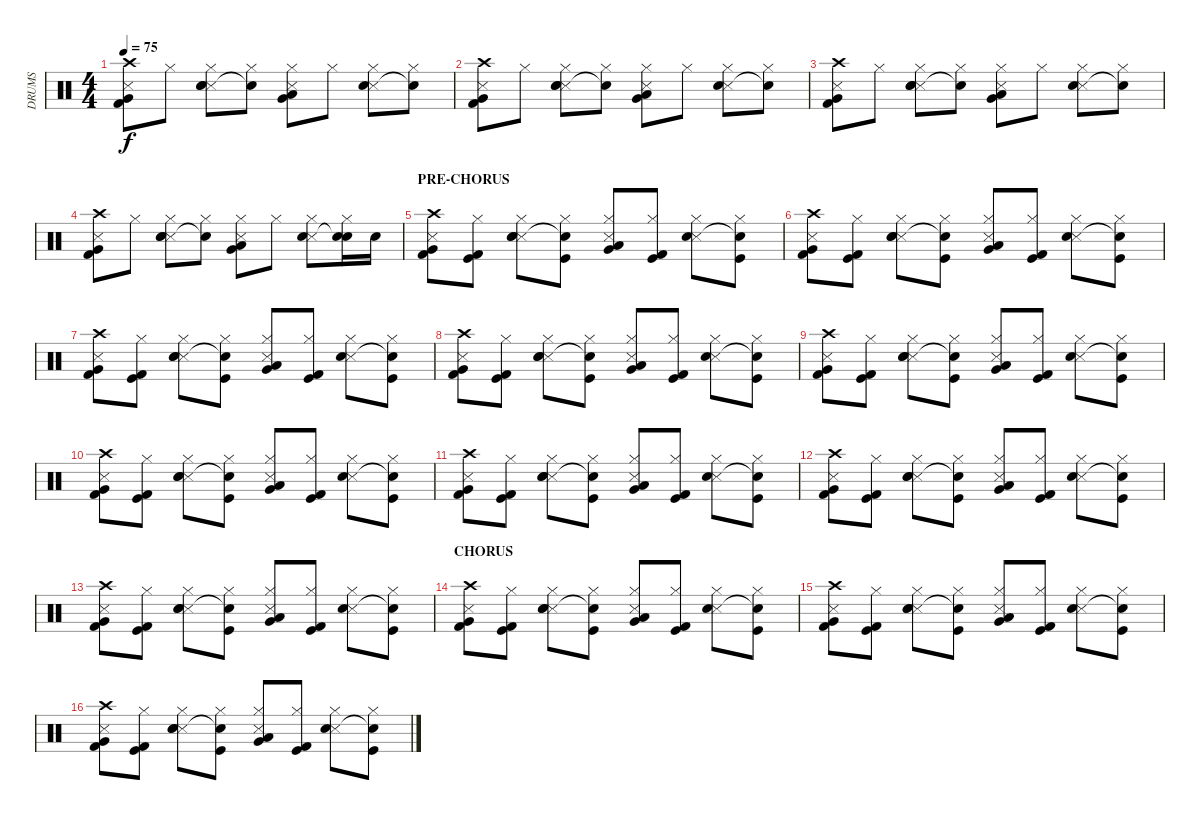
\track ("DRUMS" "DRUMS") {instrument percussion}
\staff {score}
\articulation defaults
\ts (4 4)
\tempo 75
\clef neutral
\ks c
("Crash high (hit)" "Snare (side stick) 3" "Very Low Tom (hit)" "Kick (hit) 2").8{dy f} "Hi-Hat (closed)".8 ("Hi-Hat (closed)" "Snare (side stick) 3" "Electric Snare (hit)" "Snare (hit) 2").8 ("Hi-Hat (closed)" "Snare (hit)"{t}).8 ("Hi-Hat (closed)" "Snare (side stick) 3" "Very Low Tom (hit)" "Low Floor Tom (hit)").8 "Hi-Hat (closed)".8 ("Hi-Hat (closed)" "Snare (side stick) 3" "Electric Snare (hit)").8 ("Hi-Hat (closed)" "Snare (hit)"{t}).8 |
("Crash high (hit)" "Snare (side stick) 3" "Very Low Tom (hit)" "Kick (hit) 2").8 "Hi-Hat (closed)".8 ("Hi-Hat (closed)" "Snare (side stick) 3" "Electric Snare (hit)" "Snare (hit) 2").8 ("Hi-Hat (closed)" "Snare (hit)"{t}).8 ("Hi-Hat (closed)" "Snare (side stick) 3" "Very Low Tom (hit)" "Low Floor Tom (hit)").8 "Hi-Hat (closed)".8 ("Hi-Hat (closed)" "Snare (side stick) 3" "Electric Snare (hit)").8 ("Hi-Hat (closed)" "Snare (hit)"{t}).8 |
("Crash high (hit)" "Snare (side stick) 3" "Very Low Tom (hit)" "Kick (hit) 2").8 "Hi-Hat (closed)".8 ("Hi-Hat (closed)" "Snare (side stick) 3" "Electric Snare (hit)" "Snare (hit) 2").8 ("Hi-Hat (closed)" "Snare (hit)"{t}).8 ("Hi-Hat (closed)" "Snare (side stick) 3" "Very Low Tom (hit)" "Low Floor Tom (hit)").8 "Hi-Hat (closed)".8 ("Hi-Hat (closed)" "Snare (side stick) 3" "Electric Snare (hit)").8 ("Hi-Hat (closed)" "Snare (hit)"{t}).8 |
("Crash high (hit)" "Snare (side stick) 3" "Very Low Tom (hit)" "Kick (hit) 2").8 "Hi-Hat (closed)".8 ("Hi-Hat (closed)" "Snare (side stick) 3" "Electric Snare (hit)" "Snare (hit) 2").8 ("Hi-Hat (closed)" "Snare (hit)"{t}).8 ("Hi-Hat (closed)" "Snare (side stick) 3" "Very Low Tom (hit)" "Low Floor Tom (hit)").8 "Hi-Hat (closed)".8 ("Hi-Hat (closed)" "Snare (side stick) 3" "Electric Snare (hit)").8 ("Hi-Hat (closed)" "Electric Snare (hit)" "Snare (hit)"{t}).16 "Electric Snare (hit)".16 |
\section ("" "PRE-CHORUS")
("Crash high (hit)" "Snare (side stick) 3" "Very Low Tom (hit)" "Kick (hit) 2").8 ("Hi-Hat (closed)" "Kick (hit)" "Kick (hit) 2").8 ("Hi-Hat (closed)" "Snare (side stick) 3" "Electric Snare (hit)" "Snare (hit) 2").8 ("Hi-Hat (closed)" "Kick (hit)" "Snare (hit)"{t}).8 ("Hi-Hat (closed)" "Snare (side stick) 3" "Very Low Tom (hit)" "Low Floor Tom (hit)").8 ("Hi-Hat (closed)" "Kick (hit)" "Kick (hit) 2").8 ("Hi-Hat (closed)" "Snare (side stick) 3" "Electric Snare (hit)").8 ("Hi-Hat (closed)" "Kick (hit)" "Snare (hit)"{t}).8 |
("Crash high (hit)" "Snare (side stick) 3" "Very Low Tom (hit)" "Kick (hit) 2").8 ("Hi-Hat (closed)" "Kick (hit)" "Kick (hit) 2").8 ("Hi-Hat (closed)" "Snare (side stick) 3" "Electric Snare (hit)" "Snare (hit) 2").8 ("Hi-Hat (closed)" "Kick (hit)" "Snare (hit)"{t}).8 ("Hi-Hat (closed)" "Snare (side stick) 3" "Very Low Tom (hit)" "Low Floor Tom (hit)").8 ("Hi-Hat (closed)" "Kick (hit)" "Kick (hit) 2").8 ("Hi-Hat (closed)" "Snare (side stick) 3" "Electric Snare (hit)").8 ("Hi-Hat (closed)" "Kick (hit)" "Snare (hit)"{t}).8 |
("Crash high (hit)" "Snare (side stick) 3" "Very Low Tom (hit)" "Kick (hit) 2").8 ("Hi-Hat (closed)" "Kick (hit)" "Kick (hit) 2").8 ("Hi-Hat (closed)" "Snare (side stick) 3" "Electric Snare (hit)" "Snare (hit) 2").8 ("Hi-Hat (closed)" "Kick (hit)" "Snare (hit)"{t}).8 ("Hi-Hat (closed)" "Snare (side stick) 3" "Very Low Tom (hit)" "Low Floor Tom (hit)").8 ("Hi-Hat (closed)" "Kick (hit)" "Kick (hit) 2").8 ("Hi-Hat (closed)" "Snare (side stick) 3" "Electric Snare (hit)").8 ("Hi-Hat (closed)" "Kick (hit)" "Snare (hit)"{t}).8 |
("Crash high (hit)" "Snare (side stick) 3" "Very Low Tom (hit)" "Kick (hit) 2").8 ("Hi-Hat (closed)" "Kick (hit)" "Kick (hit) 2").8 ("Hi-Hat (closed)" "Snare (side stick) 3" "Electric Snare (hit)" "Snare (hit) 2").8 ("Hi-Hat (closed)" "Kick (hit)" "Snare (hit)"{t}).8 ("Hi-Hat (closed)" "Snare (side stick) 3" "Very Low Tom (hit)" "Low Floor Tom (hit)").8 ("Hi-Hat (closed)" "Kick (hit)" "Kick (hit) 2").8 ("Hi-Hat (closed)" "Snare (side stick) 3" "Electric Snare (hit)").8 ("Hi-Hat (closed)" "Kick (hit)" "Snare (hit)"{t}).8 |
("Crash high (hit)" "Snare (side stick) 3" "Very Low Tom (hit)" "Kick (hit) 2").8 ("Hi-Hat (closed)" "Kick (hit)" "Kick (hit) 2").8 ("Hi-Hat (closed)" "Snare (side stick) 3" "Electric Snare (hit)" "Snare (hit) 2").8 ("Hi-Hat (closed)" "Kick (hit)" "Snare (hit)"{t}).8 ("Hi-Hat (closed)" "Snare (side stick) 3" "Very Low Tom (hit)" "Low Floor Tom (hit)").8 ("Hi-Hat (closed)" "Kick (hit)" "Kick (hit) 2").8 ("Hi-Hat (closed)" "Snare (side stick) 3" "Electric Snare (hit)").8 ("Hi-Hat (closed)" "Kick (hit)" "Snare (hit)"{t}).8 |
("Crash high (hit)" "Snare (side stick) 3" "Very Low Tom (hit)" "Kick (hit) 2").8 ("Hi-Hat (closed)" "Kick (hit)" "Kick (hit) 2").8 ("Hi-Hat (closed)" "Snare (side stick) 3" "Electric Snare (hit)" "Snare (hit) 2").8 ("Hi-Hat (closed)" "Kick (hit)" "Snare (hit)"{t}).8 ("Hi-Hat (closed)" "Snare (side stick) 3" "Very Low Tom (hit)" "Low Floor Tom (hit)").8 ("Hi-Hat (closed)" "Kick (hit)" "Kick (hit) 2").8 ("Hi-Hat (closed)" "Snare (side stick) 3" "Electric Snare (hit)").8 ("Hi-Hat (closed)" "Kick (hit)" "Snare (hit)"{t}).8 |
("Crash high (hit)" "Snare (side stick) 3" "Very Low Tom (hit)" "Kick (hit) 2").8 ("Hi-Hat (closed)" "Kick (hit)" "Kick (hit) 2").8 ("Hi-Hat (closed)" "Snare (side stick) 3" "Electric Snare (hit)" "Snare (hit) 2").8 ("Hi-Hat (closed)" "Kick (hit)" "Snare (hit)"{t}).8 ("Hi-Hat (closed)" "Snare (side stick) 3" "Very Low Tom (hit)" "Low Floor Tom (hit)").8 ("Hi-Hat (closed)" "Kick (hit)" "Kick (hit) 2").8 ("Hi-Hat (closed)" "Snare (side stick) 3" "Electric Snare (hit)").8 ("Hi-Hat (closed)" "Kick (hit)" "Snare (hit)"{t}).8 |
("Crash high (hit)" "Snare (side stick) 3" "Very Low Tom (hit)" "Kick (hit) 2").8 ("Hi-Hat (closed)" "Kick (hit)" "Kick (hit) 2").8 ("Hi-Hat (closed)" "Snare (side stick) 3" "Electric Snare (hit)" "Snare (hit) 2").8 ("Hi-Hat (closed)" "Kick (hit)" "Snare (hit)"{t}).8 ("Hi-Hat (closed)" "Snare (side stick) 3" "Very Low Tom (hit)" "Low Floor Tom (hit)").8 ("Hi-Hat (closed)" "Kick (hit)" "Kick (hit) 2").8 ("Hi-Hat (closed)" "Snare (side stick) 3" "Electric Snare (hit)").8 ("Hi-Hat (closed)" "Kick (hit)" "Snare (hit)"{t}).8 |
("Crash high (hit)" "Snare (side stick) 3" "Very Low Tom (hit)" "Kick (hit) 2").8 ("Hi-Hat (closed)" "Kick (hit)" "Kick (hit) 2").8 ("Hi-Hat (closed)" "Snare (side stick) 3" "Electric Snare (hit)" "Snare (hit) 2").8 ("Hi-Hat (closed)" "Kick (hit)" "Snare (hit)"{t}).8 ("Hi-Hat (closed)" "Snare (side stick) 3" "Very Low Tom (hit)" "Low Floor Tom (hit)").8 ("Hi-Hat (closed)" "Kick (hit)" "Kick (hit) 2").8 ("Hi-Hat (closed)" "Snare (side stick) 3" "Electric Snare (hit)").8 ("Hi-Hat (closed)" "Kick (hit)" "Snare (hit)"{t}).8 |
\section ("" "CHORUS")
("Crash high (hit)" "Snare (side stick) 3" "Very Low Tom (hit)" "Kick (hit) 2").8 ("Hi-Hat (closed)" "Kick (hit)" "Kick (hit) 2").8 ("Hi-Hat (closed)" "Snare (side stick) 3" "Electric Snare (hit)" "Snare (hit) 2").8 ("Hi-Hat (closed)" "Kick (hit)" "Snare (hit)"{t}).8 ("Hi-Hat (closed)" "Snare (side stick) 3" "Very Low Tom (hit)" "Low Floor Tom (hit)").8 ("Hi-Hat (closed)" "Kick (hit)" "Kick (hit) 2").8 ("Hi-Hat (closed)" "Snare (side stick) 3" "Electric Snare (hit)").8 ("Hi-Hat (closed)" "Kick (hit)" "Snare (hit)"{t}).8 |
("Crash high (hit)" "Snare (side stick) 3" "Very Low Tom (hit)" "Kick (hit) 2").8 ("Hi-Hat (closed)" "Kick (hit)" "Kick (hit) 2").8 ("Hi-Hat (closed)" "Snare (side stick) 3" "Electric Snare (hit)" "Snare (hit) 2").8 ("Hi-Hat (closed)" "Kick (hit)" "Snare (hit)"{t}).8 ("Hi-Hat (closed)" "Snare (side stick) 3" "Very Low Tom (hit)" "Low Floor Tom (hit)").8 ("Hi-Hat (closed)" "Kick (hit)" "Kick (hit) 2").8 ("Hi-Hat (closed)" "Snare (side stick) 3" "Electric Snare (hit)").8 ("Hi-Hat (closed)" "Kick (hit)" "Snare (hit)"{t}).8 |
("Crash high (hit)" "Snare (side stick) 3" "Very Low Tom (hit)" "Kick (hit) 2").8 ("Hi-Hat (closed)" "Kick (hit)" "Kick (hit) 2").8 ("Hi-Hat (closed)" "Snare (side stick) 3" "Electric Snare (hit)" "Snare (hit) 2").8 ("Hi-Hat (closed)" "Kick (hit)" "Snare (hit)"{t}).8 ("Hi-Hat (closed)" "Snare (side stick) 3" "Very Low Tom (hit)" "Low Floor Tom (hit)").8 ("Hi-Hat (closed)" "Kick (hit)" "Kick (hit) 2").8 ("Hi-Hat (closed)" "Snare (side stick) 3" "Electric Snare (hit)").8 ("Hi-Hat (closed)" "Kick (hit)" "Snare (hit)"{t}).8
